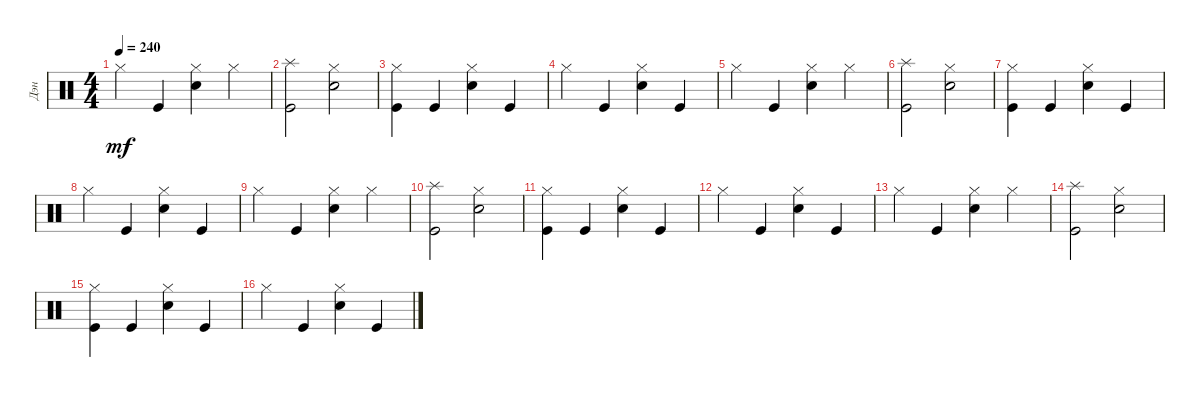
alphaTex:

\track ("Дэн" "Дэн") {instrument percussion}
\staff {score}
\articulation defaults
\ts (4 4)
\tempo 240
\clef neutral
\ks c "Hi-Hat (closed)".4{dy mf} "Kick (hit)".4
("Snare (hit) 2" "Hi-Hat (closed)").4 "Hi-Hat (closed)".4 |
("Kick (hit)" "Splash (hit)").2 ("Snare (hit) 2" "Hi-Hat (closed)").2 |
("Kick (hit)" "Hi-Hat (closed)").4 "Kick (hit)".4 ("Snare (hit) 2" "Hi-Hat (closed)").4 "Kick (hit)".4 |
"Hi-Hat (closed)".4 "Kick (hit)".4 ("Snare (hit) 2" "Hi-Hat (closed)").4 "Kick (hit)".4 |
"Hi-Hat (closed)".4 "Kick (hit)".4 ("Snare (hit) 2" "Hi-Hat (closed)").4 "Hi-Hat (closed)".4 |
("Kick (hit)" "Splash (hit)").2 ("Snare (hit) 2" "Hi-Hat (closed)").2 |
("Kick (hit)" "Hi-Hat (closed)").4 "Kick (hit)".4 ("Snare (hit) 2" "Hi-Hat (closed)").4 "Kick (hit)".4 |
"Hi-Hat (closed)".4 "Kick (hit)".4 ("Snare (hit) 2" "Hi-Hat (closed)").4 "Kick (hit)".4 |
"Hi-Hat (closed)".4 "Kick (hit)".4 ("Snare (hit) 2" "Hi-Hat (closed)").4 "Hi-Hat (closed)".4 |
("Kick (hit)" "Splash (hit)").2 ("Snare (hit) 2" "Hi-Hat (closed)").2 |
("Kick (hit)" "Hi-Hat (closed)").4 "Kick (hit)".4 ("Snare (hit) 2" "Hi-Hat (closed)").4 "Kick (hit)".4 |
"Hi-Hat (closed)".4 "Kick (hit)".4 ("Snare (hit) 2" "Hi-Hat (closed)").4 "Kick (hit)".4 |
"Hi-Hat (closed)".4 "Kick (hit)".4 ("Snare (hit) 2" "Hi-Hat (closed)").4 "Hi-Hat (closed)".4 |
("Kick (hit)" "Splash (hit)").2 ("Snare (hit) 2" "Hi-Hat (closed)").2 |
("Kick (hit)" "Hi-Hat (closed)").4 "Kick (hit)".4 ("Snare (hit) 2" "Hi-Hat (closed)").4 "Kick (hit)".4 |
"Hi-Hat (closed)".4 "Kick (hit)".4 ("Snare (hit) 2" "Hi-Hat (closed)").4 "Kick (hit)".4
